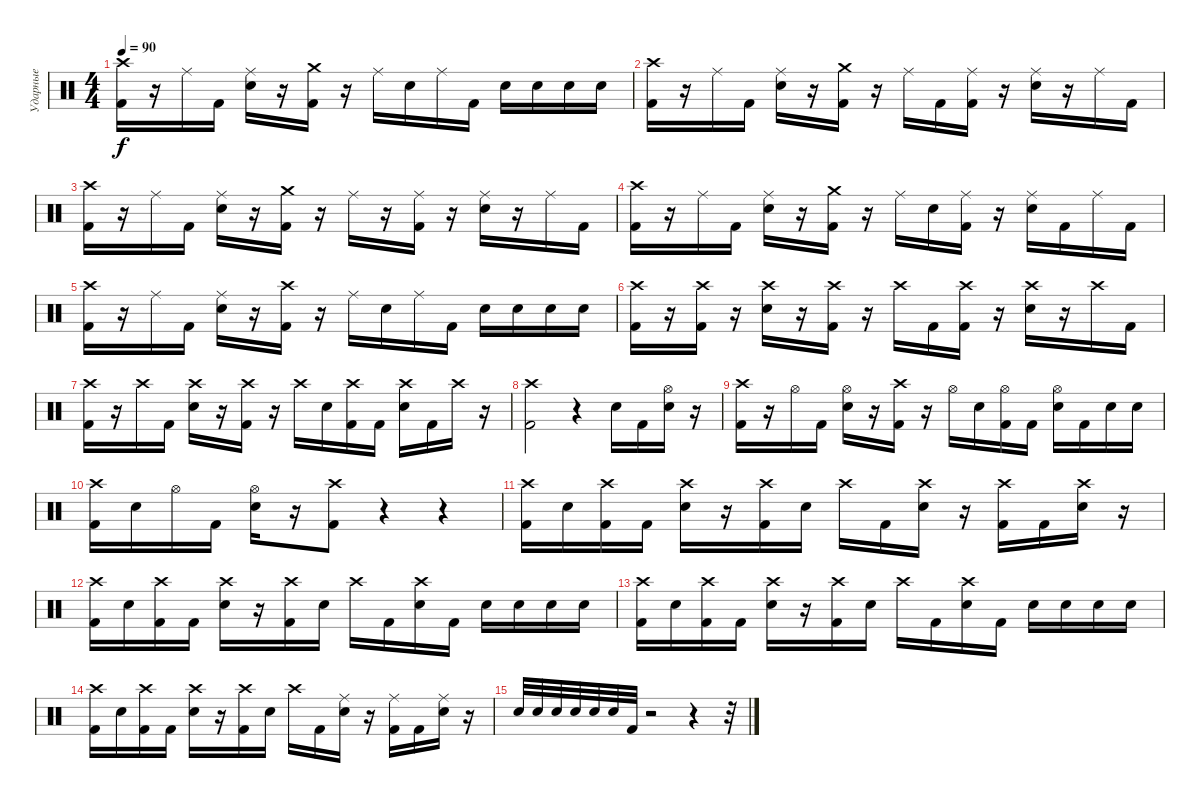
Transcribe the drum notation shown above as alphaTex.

\track ("Ударные" "Ударные") {instrument percussion}
\staff {score}
\articulation defaults
\ts (4 4)
\tempo 90
\clef neutral
\ks c
("Crash high (hit)" "Kick (hit) 2").16{dy f} r.16 "Ride (middle)".16 "Kick (hit) 2".16 ("Ride (middle)" "Electric Snare (hit)").16 r.16 ("Crash medium (hit)" "Kick (hit) 2").16 r.16 "Ride (middle)".16 "Electric Snare (hit)".16 "Ride (middle)".16 "Kick (hit) 2".16 "Electric Snare (hit)".16 "Electric Snare (hit)".16 "Electric Snare (hit)".16 "Electric Snare (hit)".16 |
("Crash high (hit)" "Kick (hit) 2").16 r.16 "Ride (middle)".16 "Kick (hit) 2".16 ("Ride (middle)" "Electric Snare (hit)").16 r.16 ("Crash medium (hit)" "Kick (hit) 2").16 r.16 "Ride (middle)".16 "Kick (hit) 2".16 ("Ride (middle)" "Kick (hit) 2").16 r.16 ("Ride (middle)" "Electric Snare (hit)").16 r.16 "Ride (middle)".16 "Kick (hit) 2".16 |
("Crash high (hit)" "Kick (hit) 2").16 r.16 "Ride (middle)".16 "Kick (hit) 2".16 ("Ride (middle)" "Electric Snare (hit)").16 r.16 ("Crash medium (hit)" "Kick (hit) 2").16 r.16 "Ride (middle)".16 r.16 ("Ride (middle)" "Kick (hit) 2").16 r.16 ("Ride (middle)" "Electric Snare (hit)").16 r.16 "Ride (middle)".16 "Kick (hit) 2".16 |
("Crash high (hit)" "Kick (hit) 2").16 r.16 "Ride (middle)".16 "Kick (hit) 2".16 ("Ride (middle)" "Electric Snare (hit)").16 r.16 ("Crash medium (hit)" "Kick (hit) 2").16 r.16 "Ride (middle)".16 "Electric Snare (hit)".16 ("Ride (middle)" "Kick (hit) 2").16 r.16 ("Ride (middle)" "Electric Snare (hit)").16 "Kick (hit) 2".16 "Ride (middle)".16 "Kick (hit) 2".16 |
("Crash high (hit)" "Kick (hit) 2").16 r.16 "Ride (middle)".16 "Kick (hit) 2".16 ("Ride (middle)" "Electric Snare (hit)").16 r.16 ("Crash high (hit)" "Kick (hit) 2").16 r.16 "Ride (middle)".16 "Electric Snare (hit)".16 "Ride (middle)".16 "Kick (hit) 2".16 "Electric Snare (hit)".16 "Electric Snare (hit)".16 "Electric Snare (hit)".16 "Electric Snare (hit)".16 |
("Crash high (hit)" "Kick (hit) 2").16 r.16 ("Crash high (hit)" "Kick (hit) 2").16 r.16 ("Crash high (hit)" "Electric Snare (hit)").16 r.16 ("Crash high (hit)" "Kick (hit) 2").16 r.16 "Crash high (hit)".16 "Kick (hit) 2".16 ("Crash high (hit)" "Kick (hit) 2").16 r.16 ("Crash high (hit)" "Electric Snare (hit)").16 r.16 "Crash high (hit)".16 "Kick (hit) 2".16 |
("Crash high (hit)" "Kick (hit) 2").16 r.16 "Crash high (hit)".16 "Kick (hit) 2".16 ("Crash high (hit)" "Electric Snare (hit)").16 r.16 ("Crash high (hit)" "Kick (hit) 2").16 r.16 "Crash high (hit)".16 "Electric Snare (hit)".16 ("Crash high (hit)" "Kick (hit) 2").16 "Kick (hit) 2".16 ("Crash high (hit)" "Electric Snare (hit)").16 "Kick (hit) 2".16 "Crash high (hit)".16 r.16 |
("Crash high (hit)" "Kick (hit) 2").2 r.4 "Electric Snare (hit)".16 "Kick (hit) 2".16 ("Hi-Hat (open)" "Electric Snare (hit)").16 r.16 |
("Crash high (hit)" "Kick (hit) 2").16 r.16 "Hi-Hat (open)".16 "Kick (hit) 2".16 ("Hi-Hat (open)" "Electric Snare (hit)").16 r.16 ("Crash high (hit)" "Kick (hit) 2").16 r.16 "Hi-Hat (open)".16 "Electric Snare (hit)".16 ("Hi-Hat (open)" "Kick (hit) 2").16 "Kick (hit) 2".16 ("Hi-Hat (open)" "Electric Snare (hit)").16 "Kick (hit) 2".16 "Electric Snare (hit)".16 "Electric Snare (hit)".16 |
("Crash high (hit)" "Kick (hit) 2").16 "Electric Snare (hit)".16 "Hi-Hat (open)".16 "Kick (hit) 2".16 ("Hi-Hat (open)" "Electric Snare (hit)").16 r.16 ("Crash high (hit)" "Kick (hit) 2").8 r.4 r.4 |
("Crash high (hit)" "Kick (hit) 2").16 "Electric Snare (hit)".16 ("Crash high (hit)" "Kick (hit) 2").16 "Kick (hit) 2".16 ("Crash high (hit)" "Electric Snare (hit)").16 r.16 ("Crash high (hit)" "Kick (hit) 2").16 "Electric Snare (hit)".16 "Crash high (hit)".16 "Kick (hit) 2".16 ("Crash high (hit)" "Electric Snare (hit)").16 r.16 ("Crash high (hit)" "Kick (hit) 2").16 "Kick (hit) 2".16 ("Crash high (hit)" "Electric Snare (hit)").16 r.16 |
("Crash high (hit)" "Kick (hit) 2").16 "Electric Snare (hit)".16 ("Crash high (hit)" "Kick (hit) 2").16 "Kick (hit) 2".16 ("Crash high (hit)" "Electric Snare (hit)").16 r.16 ("Crash high (hit)" "Kick (hit) 2").16 "Electric Snare (hit)".16 "Crash high (hit)".16 "Kick (hit) 2".16 ("Crash high (hit)" "Electric Snare (hit)").16 "Kick (hit) 2".16 "Electric Snare (hit)".16 "Electric Snare (hit)".16 "Electric Snare (hit)".16 "Electric Snare (hit)".16 |
("Crash high (hit)" "Kick (hit) 2").16 "Electric Snare (hit)".16 ("Crash high (hit)" "Kick (hit) 2").16 "Kick (hit) 2".16 ("Crash high (hit)" "Electric Snare (hit)").16 r.16 ("Crash high (hit)" "Kick (hit) 2").16 "Electric Snare (hit)".16 "Crash high (hit)".16 "Kick (hit) 2".16 ("Crash high (hit)" "Electric Snare (hit)").16 "Kick (hit) 2".16 "Electric Snare (hit)".16 "Electric Snare (hit)".16 "Electric Snare (hit)".16 "Electric Snare (hit)".16 |
("Crash high (hit)" "Kick (hit) 2").16 "Electric Snare (hit)".16 ("Crash high (hit)" "Kick (hit) 2").16 "Kick (hit) 2".16 ("Crash high (hit)" "Electric Snare (hit)").16 r.16 ("Crash high (hit)" "Kick (hit) 2").16 "Electric Snare (hit)".16 "Crash high (hit)".16 "Kick (hit) 2".16 ("Ride (middle)" "Electric Snare (hit)").16 r.16 ("Ride (middle)" "Kick (hit) 2").16 "Kick (hit) 2".16 ("Ride (middle)" "Electric Snare (hit)").16 r.16 |
"Electric Snare (hit)".32 "Electric Snare (hit)".32 "Electric Snare (hit)".32 "Electric Snare (hit)".32 "Electric Snare (hit)".32 "Electric Snare (hit)".32 "Kick (hit) 2".32 r.2 r.4 r.32
